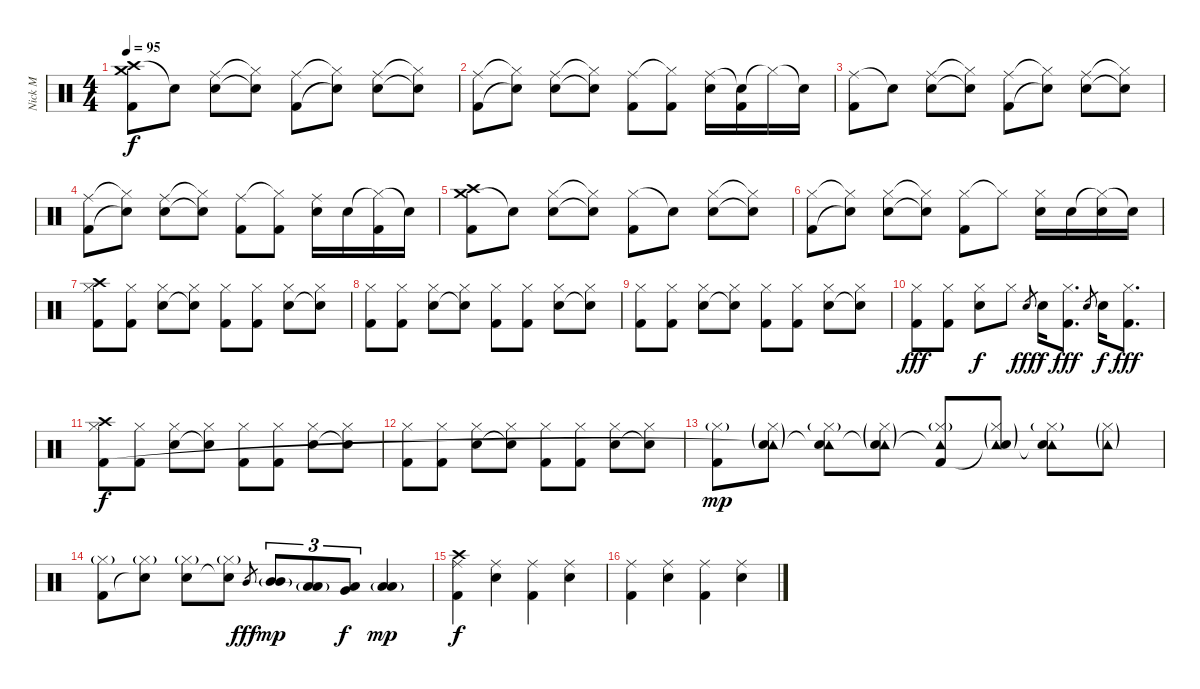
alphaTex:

\track ("Nick M" "Nick M") {instrument percussion}
\staff {score}
\articulation defaults
\ts (4 4)
\tempo 95
\clef neutral
\ks c
("Crash high (hit)" "Crash medium (hit)" "Kick (hit) 2").8{dy f} "Snare (hit)"{t}.8 ("Ride (middle)" "Snare (hit) 2").8 ("Hi-Hat (closed)"{t} "Snare (hit)"{t}).8 ("Ride (middle)" "Kick (hit) 2").8 ("Hi-Hat (closed)"{t} "Snare (hit)"{t}).8 ("Ride (middle)" "Snare (hit) 2").8 ("Hi-Hat (closed)"{t} "Snare (hit)"{t}).8 |
("Ride (middle)" "Kick (hit) 2").8 ("Hi-Hat (closed)"{t} "Snare (hit)"{t}).8 ("Ride (middle)" "Snare (hit) 2").8 ("Hi-Hat (closed)"{t} "Snare (hit)"{t}).8 ("Ride (middle)" "Kick (hit) 2").8 ("Hi-Hat (closed)"{t} "Kick (hit) 2").8 ("Ride (middle)" "Snare (hit) 2").16 ("Snare (hit)"{t} "Kick (hit) 2").16 "Hi-Hat (closed)"{t}.16 "Snare (hit)"{t}.16 |
("Ride (middle)" "Kick (hit) 2").8 "Snare (hit)"{t}.8 ("Ride (middle)" "Snare (hit) 2").8 ("Hi-Hat (closed)"{t} "Snare (hit)"{t}).8 ("Ride (middle)" "Kick (hit) 2").8 ("Hi-Hat (closed)"{t} "Snare (hit)"{t}).8 ("Ride (middle)" "Snare (hit) 2").8 ("Hi-Hat (closed)"{t} "Snare (hit)"{t}).8 |
("Ride (middle)" "Kick (hit) 2").8 ("Hi-Hat (closed)"{t} "Snare (hit)"{t}).8 ("Ride (middle)" "Snare (hit) 2").8 ("Hi-Hat (closed)"{t} "Snare (hit)"{t}).8 ("Ride (middle)" "Kick (hit) 2").8 ("Hi-Hat (closed)"{t} "Kick (hit) 2").8 ("Ride (middle)" "Snare (hit) 2").16 "Snare (hit) 2".16 ("Hi-Hat (closed)"{t} "Kick (hit) 2").16 "Snare (hit)"{t}.16 |
("Crash medium (hit)" "Crash high (hit)" "Kick (hit) 2").8 "Snare (hit)"{t}.8 ("Hi-Hat (closed)" "Snare (hit) 2").8 ("Hi-Hat (closed)"{t} "Snare (hit)"{t}).8 ("Hi-Hat (closed)" "Kick (hit) 2").8 "Snare (hit)"{t}.8 ("Hi-Hat (closed)" "Snare (hit) 2").8 ("Hi-Hat (closed)"{t} "Snare (hit)"{t}).8 |
("Hi-Hat (closed)" "Kick (hit) 2").8 ("Hi-Hat (closed)"{t} "Snare (hit)"{t}).8 ("Hi-Hat (closed)" "Snare (hit) 2").8 ("Hi-Hat (closed)"{t} "Snare (hit)"{t}).8 ("Hi-Hat (closed)" "Kick (hit) 2").8 "Hi-Hat (closed)"{t}.8 ("Hi-Hat (closed)" "Snare (hit) 2").16 "Snare (hit) 2".16 ("Hi-Hat (closed)"{t} "Snare (hit) 2").16 "Snare (hit)"{t}.16 |
("Hi-Hat (closed)" "Crash high (hit)" "Kick (hit) 2").8 ("Hi-Hat (closed)" "Kick (hit) 2").8 ("Hi-Hat (closed)" "Snare (hit) 2").8 ("Hi-Hat (closed)" "Snare (hit)"{t}).8 ("Hi-Hat (closed)" "Kick (hit) 2").8 ("Hi-Hat (closed)" "Kick (hit) 2").8 ("Hi-Hat (closed)" "Snare (hit) 2").8 ("Hi-Hat (closed)" "Snare (hit)"{t}).8 |
("Hi-Hat (closed)" "Kick (hit) 2").8 ("Hi-Hat (closed)" "Kick (hit) 2").8 ("Hi-Hat (closed)" "Snare (hit) 2").8 ("Hi-Hat (closed)" "Snare (hit)"{t}).8 ("Hi-Hat (closed)" "Kick (hit) 2").8 ("Hi-Hat (closed)" "Kick (hit) 2").8 ("Hi-Hat (closed)" "Snare (hit) 2").8 ("Hi-Hat (closed)" "Snare (hit)"{t}).8 |
("Hi-Hat (closed)" "Kick (hit) 2").8 ("Hi-Hat (closed)" "Kick (hit) 2").8 ("Hi-Hat (closed)" "Snare (hit) 2").8 ("Hi-Hat (closed)" "Snare (hit)"{t}).8 ("Hi-Hat (closed)" "Kick (hit) 2").8 ("Hi-Hat (closed)" "Kick (hit) 2").8 ("Hi-Hat (closed)" "Snare (hit) 2").8 ("Hi-Hat (closed)" "Snare (hit)"{t}).8 |
("Hi-Hat (closed)" "Kick (hit) 2").8{dy fff} ("Hi-Hat (closed)" "Kick (hit) 2").8 ("Hi-Hat (closed)" "Snare (hit) 2").8{dy f} "Hi-Hat (closed)".8 "Snare (hit) 2".8{gr dy fff} "Snare (hit) 2".16{dy f} ("Hi-Hat (closed)" "Kick (hit) 2").8{d dy fff} "Snare (hit) 2".8{gr} "Snare (hit) 2".16{dy f} ("Hi-Hat (closed)" "Kick (hit) 2").8{d dy fff} |
("Hi-Hat (closed)" "Crash high (hit)" "Kick (hit) 2").8{dy f} ("Hi-Hat (closed)" "Kick (hit) 2").8 ("Hi-Hat (closed)" "Snare (hit) 2").8 ("Hi-Hat (closed)" "Snare (hit)"{t}).8 ("Hi-Hat (closed)" "Kick (hit) 2").8 ("Hi-Hat (closed)" "Kick (hit) 2").8 ("Hi-Hat (closed)" "Snare (hit) 2").8 ("Hi-Hat (closed)" "Snare (hit)"{t}).8 |
("Hi-Hat (closed)" "Kick (hit) 2").8 ("Hi-Hat (closed)" "Kick (hit) 2").8 ("Hi-Hat (closed)" "Snare (hit) 2").8 ("Hi-Hat (closed)" "Snare (hit)"{t}).8 ("Hi-Hat (closed)" "Kick (hit) 2").8 ("Hi-Hat (closed)" "Kick (hit) 2").8 ("Hi-Hat (closed)" "Snare (hit) 2").8 ("Hi-Hat (closed)" "Snare (hit)"{t}).8 |
("Hi-Hat (closed)"{g} "Kick (hit) 2").8{dy mp} ("Hi-Hat (closed)"{g} "Tambourine (hit)"{g} "Snare (hit)"{t}).8 ("Hi-Hat (closed)"{g} "Tambourine (hit)"{t} "Snare (hit) 2").8 ("Hi-Hat (closed)"{g} "Tambourine (hit)"{g} "Snare (hit)"{t}).8 ("Hi-Hat (closed)"{g} "Tambourine (hit)"{t} "Kick (hit) 2").8 ("Hi-Hat (closed)"{g} "Tambourine (hit)"{g} "Snare (hit)"{t}).8 ("Hi-Hat (closed)"{g} "Tambourine (hit)"{t} "Snare (hit) 2").8 ("Hi-Hat (closed)"{g} "Tambourine (hit)"{g}).8 |
("Hi-Hat (closed)"{g} "Kick (hit) 2").8 ("Hi-Hat (closed)"{g} "Snare (hit)"{t}).8 ("Hi-Hat (closed)"{g} "Snare (hit) 2").8 ("Hi-Hat (closed)"{g} "Snare (hit)"{t}).8 "Mid Tom (hit)".8{gr dy fff} ("Mid Tom (hit)" "Mid Tom (hit)"{g}).8{tu (3 2) dy mp} ("Low Tom (hit)" "Low Tom (hit)"{g}).8{tu (3 2)} ("Very Low Tom (hit)" "Low Tom (hit)").8{tu (3 2) dy f} ("Low Floor Tom (hit)" "Low Floor Tom (hit)"{g}).4{dy mp} |
("Ride (middle)" "Crash high (hit)" "Kick (hit) 2").4{dy f} ("Ride (middle)" "Snare (hit) 2").4 ("Ride (middle)" "Kick (hit) 2").4 ("Ride (middle)" "Snare (hit) 2").4 |
("Ride (middle)" "Kick (hit) 2").4 ("Ride (middle)" "Snare (hit) 2").4 ("Ride (middle)" "Kick (hit) 2").4 ("Ride (middle)" "Snare (hit) 2").4
